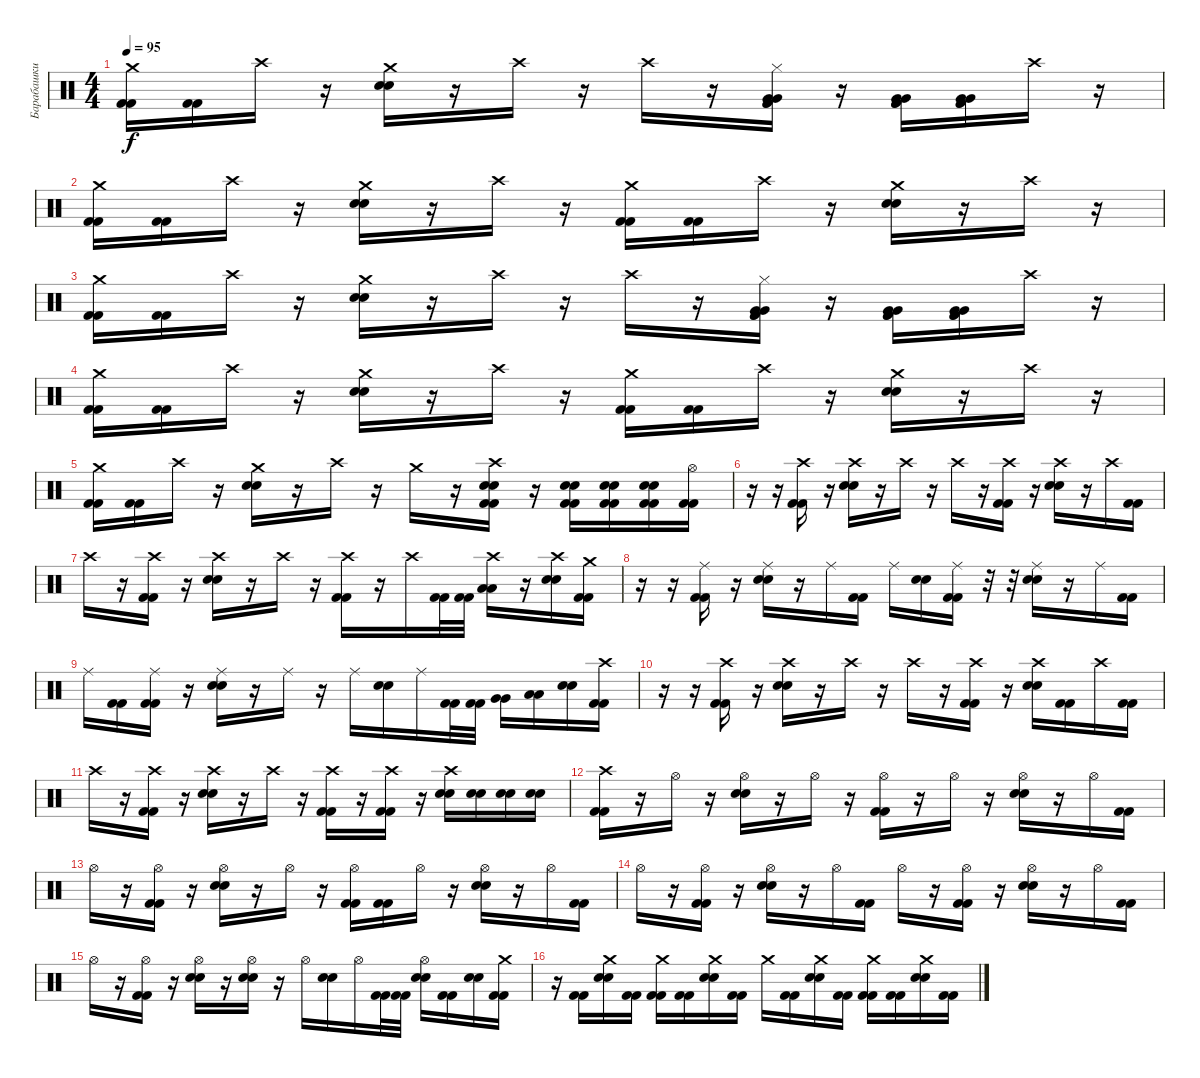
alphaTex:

\track ("Барабашки" "Барабашки") {instrument percussion}
\staff {score}
\articulation defaults
\ts (4 4)
\tempo 95
\clef neutral
\ks c
("Crash medium (hit)" "Kick (hit) 2" "Kick (hit) 2").16{dy f} ("Kick (hit) 2" "Kick (hit) 2").16 "Crash high (hit)".16 r.16 ("Crash medium (hit)" "Electric Snare (hit)" "Electric Snare (hit)").16 r.16 "Crash high (hit)".16 r.16 "Crash high (hit)".16 r.16 ("Hi-Hat (closed)" "Very Low Tom (hit)" "Very Low Tom (hit)" "Kick (hit) 2" "Kick (hit) 2").16 r.16 ("Very Low Tom (hit)" "Very Low Tom (hit)" "Kick (hit) 2" "Kick (hit) 2").16 ("Very Low Tom (hit)" "Very Low Tom (hit)" "Kick (hit) 2" "Kick (hit) 2").16 "Crash high (hit)".16 r.16 |
("Crash medium (hit)" "Kick (hit) 2" "Kick (hit) 2").16 ("Kick (hit) 2" "Kick (hit) 2").16 "Crash high (hit)".16 r.16 ("Crash medium (hit)" "Electric Snare (hit)" "Electric Snare (hit)").16 r.16 "Crash high (hit)".16 r.16 ("Crash medium (hit)" "Kick (hit) 2" "Kick (hit) 2").16 ("Kick (hit) 2" "Kick (hit) 2").16 "Crash high (hit)".16 r.16 ("Crash medium (hit)" "Electric Snare (hit)" "Electric Snare (hit)").16 r.16 "Crash high (hit)".16 r.16 |
("Crash medium (hit)" "Kick (hit) 2" "Kick (hit) 2").16 ("Kick (hit) 2" "Kick (hit) 2").16 "Crash high (hit)".16 r.16 ("Crash medium (hit)" "Electric Snare (hit)" "Electric Snare (hit)").16 r.16 "Crash high (hit)".16 r.16 "Crash high (hit)".16 r.16 ("Hi-Hat (closed)" "Very Low Tom (hit)" "Very Low Tom (hit)" "Kick (hit) 2" "Kick (hit) 2").16 r.16 ("Very Low Tom (hit)" "Very Low Tom (hit)" "Kick (hit) 2" "Kick (hit) 2").16 ("Very Low Tom (hit)" "Very Low Tom (hit)" "Kick (hit) 2" "Kick (hit) 2").16 "Crash high (hit)".16 r.16 |
("Crash medium (hit)" "Kick (hit) 2" "Kick (hit) 2").16 ("Kick (hit) 2" "Kick (hit) 2").16 "Crash high (hit)".16 r.16 ("Crash medium (hit)" "Electric Snare (hit)" "Electric Snare (hit)").16 r.16 "Crash high (hit)".16 r.16 ("Crash medium (hit)" "Kick (hit) 2" "Kick (hit) 2").16 ("Kick (hit) 2" "Kick (hit) 2").16 "Crash high (hit)".16 r.16 ("Crash medium (hit)" "Electric Snare (hit)" "Electric Snare (hit)").16 r.16 "Crash high (hit)".16 r.16 |
("Crash medium (hit)" "Kick (hit) 2" "Kick (hit) 2").16 ("Kick (hit) 2" "Kick (hit) 2").16 "Crash high (hit)".16 r.16 ("Crash medium (hit)" "Electric Snare (hit)" "Electric Snare (hit)").16 r.16 "Crash high (hit)".16 r.16 "Crash medium (hit)".16 r.16 ("Crash high (hit)" "Electric Snare (hit)" "Electric Snare (hit)" "Kick (hit) 2" "Kick (hit) 2").16 r.16 ("Electric Snare (hit)" "Electric Snare (hit)" "Kick (hit) 2" "Kick (hit) 2").16 ("Electric Snare (hit)" "Electric Snare (hit)" "Kick (hit) 2" "Kick (hit) 2").16 ("Electric Snare (hit)" "Electric Snare (hit)" "Kick (hit) 2" "Kick (hit) 2").16 ("Hi-Hat (open)" "Kick (hit) 2" "Kick (hit) 2").16 |
r.16 r.16 ("Crash high (hit)" "Kick (hit) 2" "Kick (hit) 2").16 r.16 ("Crash high (hit)" "Electric Snare (hit)" "Electric Snare (hit)").16 r.16 "Crash high (hit)".16 r.16 "Crash high (hit)".16 r.16 ("Crash high (hit)" "Kick (hit) 2" "Kick (hit) 2").16 r.16 ("Crash high (hit)" "Electric Snare (hit)" "Electric Snare (hit)").16 r.16 "Crash high (hit)".16 ("Kick (hit) 2" "Kick (hit) 2").16 |
"Crash high (hit)".16 r.16 ("Crash high (hit)" "Kick (hit) 2" "Kick (hit) 2").16 r.16 ("Crash high (hit)" "Electric Snare (hit)" "Electric Snare (hit)").16 r.16 "Crash high (hit)".16 r.16 ("Crash high (hit)" "Kick (hit) 2" "Kick (hit) 2").16 r.16 "Crash high (hit)".16 ("Kick (hit) 2" "Kick (hit) 2").32 ("Kick (hit) 2" "Kick (hit) 2").32 ("Crash high (hit)" "Low Floor Tom (hit)" "Low Floor Tom (hit)").16 r.16 ("Crash high (hit)" "Electric Snare (hit)" "Electric Snare (hit)").16 ("Crash medium (hit)" "Kick (hit) 2" "Kick (hit) 2").16 |
r.16 r.16 ("Ride (middle)" "Kick (hit) 2" "Kick (hit) 2").16 r.16 ("Ride (middle)" "Electric Snare (hit)" "Electric Snare (hit)").16 r.16 "Ride (middle)".16 ("Kick (hit) 2" "Kick (hit) 2").16 "Ride (middle)".16 ("Electric Snare (hit)" "Electric Snare (hit)").16 ("Ride (middle)" "Kick (hit) 2" "Kick (hit) 2").16 r.32 r.32 ("Ride (middle)" "Electric Snare (hit)" "Electric Snare (hit)").16 r.16 "Ride (middle)".16 ("Kick (hit) 2" "Kick (hit) 2").16 |
"Ride (middle)".16 ("Kick (hit) 2" "Kick (hit) 2").16 ("Ride (middle)" "Kick (hit) 2" "Kick (hit) 2").16 r.16 ("Ride (middle)" "Electric Snare (hit)" "Electric Snare (hit)").16 r.16 "Ride (middle)".16 r.16 "Ride (middle)".16 ("Electric Snare (hit)" "Electric Snare (hit)").16 "Ride (middle)".16 ("Kick (hit) 2" "Kick (hit) 2").32 ("Kick (hit) 2" "Kick (hit) 2").32 ("Very Low Tom (hit)" "Very Low Tom (hit)").16 ("Low Floor Tom (hit)" "Low Floor Tom (hit)").16 ("Electric Snare (hit)" "Electric Snare (hit)").16 ("Crash high (hit)" "Kick (hit) 2" "Kick (hit) 2").16 |
r.16 r.16 ("Crash high (hit)" "Kick (hit) 2" "Kick (hit) 2").16 r.16 ("Crash high (hit)" "Electric Snare (hit)" "Electric Snare (hit)").16 r.16 "Crash high (hit)".16 r.16 "Crash high (hit)".16 r.16 ("Crash high (hit)" "Kick (hit) 2" "Kick (hit) 2").16 r.16 ("Crash high (hit)" "Electric Snare (hit)" "Electric Snare (hit)").16 ("Kick (hit) 2" "Kick (hit) 2").16 "Crash high (hit)".16 ("Kick (hit) 2" "Kick (hit) 2").16 |
"Crash high (hit)".16 r.16 ("Crash high (hit)" "Kick (hit) 2" "Kick (hit) 2").16 r.16 ("Crash high (hit)" "Electric Snare (hit)" "Electric Snare (hit)").16 r.16 "Crash high (hit)".16 r.16 ("Crash high (hit)" "Kick (hit) 2" "Kick (hit) 2").16 r.16 ("Crash high (hit)" "Kick (hit) 2" "Kick (hit) 2").16 r.16 ("Crash high (hit)" "Electric Snare (hit)" "Electric Snare (hit)").16 ("Electric Snare (hit)" "Electric Snare (hit)").16 ("Electric Snare (hit)" "Electric Snare (hit)").16 ("Electric Snare (hit)" "Electric Snare (hit)").16 |
("Crash high (hit)" "Kick (hit) 2" "Kick (hit) 2").16 r.16 "Hi-Hat (open)".16 r.16 ("Hi-Hat (open)" "Electric Snare (hit)" "Electric Snare (hit)").16 r.16 "Hi-Hat (open)".16 r.16 ("Hi-Hat (open)" "Kick (hit) 2" "Kick (hit) 2").16 r.16 "Hi-Hat (open)".16 r.16 ("Hi-Hat (open)" "Electric Snare (hit)" "Electric Snare (hit)").16 r.16 "Hi-Hat (open)".16 ("Kick (hit) 2" "Kick (hit) 2").16 |
"Hi-Hat (open)".16 r.16 ("Hi-Hat (open)" "Kick (hit) 2" "Kick (hit) 2").16 r.16 ("Hi-Hat (open)" "Electric Snare (hit)" "Electric Snare (hit)").16 r.16 "Hi-Hat (open)".16 r.16 ("Hi-Hat (open)" "Kick (hit) 2" "Kick (hit) 2").16 ("Kick (hit) 2" "Kick (hit) 2").16 "Hi-Hat (open)".16 r.16 ("Hi-Hat (open)" "Electric Snare (hit)" "Electric Snare (hit)").16 r.16 "Hi-Hat (open)".16 ("Kick (hit) 2" "Kick (hit) 2").16 |
"Hi-Hat (open)".16 r.16 ("Hi-Hat (open)" "Kick (hit) 2" "Kick (hit) 2").16 r.16 ("Hi-Hat (open)" "Electric Snare (hit)" "Electric Snare (hit)").16 r.16 "Hi-Hat (open)".16 ("Kick (hit) 2" "Kick (hit) 2").16 "Hi-Hat (open)".16 r.16 ("Hi-Hat (open)" "Kick (hit) 2" "Kick (hit) 2").16 r.16 ("Hi-Hat (open)" "Electric Snare (hit)" "Electric Snare (hit)").16 r.16 "Hi-Hat (open)".16 ("Kick (hit) 2" "Kick (hit) 2").16 |
"Hi-Hat (open)".16 r.16 ("Hi-Hat (open)" "Kick (hit) 2" "Kick (hit) 2").16 r.16 ("Hi-Hat (open)" "Electric Snare (hit)" "Electric Snare (hit)").16 r.16 ("Hi-Hat (open)" "Electric Snare (hit)" "Electric Snare (hit)").16 r.16 "Hi-Hat (open)".16 ("Electric Snare (hit)" "Electric Snare (hit)").16 "Hi-Hat (open)".16 ("Kick (hit) 2" "Kick (hit) 2").32 ("Kick (hit) 2" "Kick (hit) 2").32 ("Hi-Hat (open)" "Electric Snare (hit)" "Electric Snare (hit)").16 ("Kick (hit) 2" "Kick (hit) 2").16 ("Electric Snare (hit)" "Electric Snare (hit)").16 ("Crash medium (hit)" "Kick (hit) 2" "Kick (hit) 2").16 |
r.16 ("Kick (hit) 2" "Kick (hit) 2").16 ("Crash medium (hit)" "Electric Snare (hit)" "Electric Snare (hit)").16 ("Kick (hit) 2" "Kick (hit) 2").16 ("Crash medium (hit)" "Kick (hit) 2" "Kick (hit) 2").16 ("Kick (hit) 2" "Kick (hit) 2").16 ("Crash medium (hit)" "Electric Snare (hit)" "Electric Snare (hit)").16 ("Kick (hit) 2" "Kick (hit) 2").16 "Crash medium (hit)".16 ("Kick (hit) 2" "Kick (hit) 2").16 ("Crash medium (hit)" "Electric Snare (hit)" "Electric Snare (hit)").16 ("Kick (hit) 2" "Kick (hit) 2").16 ("Crash medium (hit)" "Kick (hit) 2" "Kick (hit) 2").16 ("Kick (hit) 2" "Kick (hit) 2").16 ("Crash medium (hit)" "Electric Snare (hit)" "Electric Snare (hit)").16 ("Kick (hit) 2" "Kick (hit) 2").16
